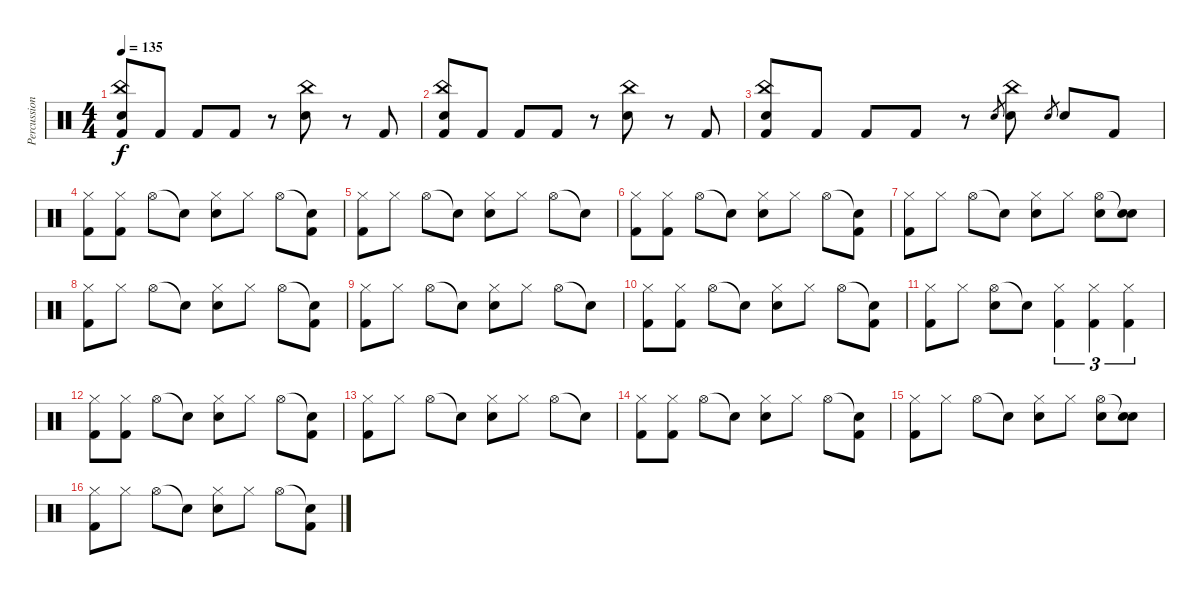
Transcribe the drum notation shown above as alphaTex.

\track ("Percussion" "Percussion") {instrument percussion}
\staff {score}
\articulation defaults
\ts (4 4)
\tempo 135
\clef neutral
\ks c
("Electric Snare (hit)" "China (hit)" "Kick (hit) 2").8{dy f} "Kick (hit) 2".8 "Kick (hit) 2".8 "Kick (hit) 2".8 r.8 ("China (hit)" "Electric Snare (hit)").8 r.8 "Kick (hit) 2".8 |
("Electric Snare (hit)" "China (hit)" "Kick (hit) 2").8 "Kick (hit) 2".8 "Kick (hit) 2".8 "Kick (hit) 2".8 r.8 ("China (hit)" "Electric Snare (hit)").8 r.8 "Kick (hit) 2".8 |
("Electric Snare (hit)" "China (hit)" "Kick (hit) 2").8 "Kick (hit) 2".8 "Kick (hit) 2".8 "Kick (hit) 2".8 r.8 "Electric Snare (hit)".8{gr} ("China (hit)" "Electric Snare (hit)").8 "Electric Snare (hit)".8{gr} "Electric Snare (hit)".8 "Kick (hit) 2".8 |
("Hi-Hat (closed)" "Kick (hit) 2").8 ("Hi-Hat (closed)" "Kick (hit) 2").8 "Hi-Hat (open)".8 "Snare (hit)"{t}.8 ("Hi-Hat (closed)" "Electric Snare (hit)").8 "Hi-Hat (closed)".8 "Hi-Hat (open)".8 ("Snare (hit)"{t} "Kick (hit) 2").8 |
("Hi-Hat (closed)" "Kick (hit) 2").8 "Hi-Hat (closed)".8 "Hi-Hat (open)".8 "Snare (hit)"{t}.8 ("Hi-Hat (closed)" "Electric Snare (hit)").8 "Hi-Hat (closed)".8 "Hi-Hat (open)".8 "Snare (hit)"{t}.8 |
("Hi-Hat (closed)" "Kick (hit) 2").8 ("Hi-Hat (closed)" "Kick (hit) 2").8 "Hi-Hat (open)".8 "Snare (hit)"{t}.8 ("Hi-Hat (closed)" "Electric Snare (hit)").8 "Hi-Hat (closed)".8 "Hi-Hat (open)".8 ("Snare (hit)"{t} "Kick (hit) 2").8 |
("Hi-Hat (closed)" "Kick (hit) 2").8 "Hi-Hat (closed)".8 "Hi-Hat (open)".8 "Snare (hit)"{t}.8 ("Hi-Hat (closed)" "Electric Snare (hit)").8 "Hi-Hat (closed)".8 ("Hi-Hat (open)" "Electric Snare (hit)").8 ("Snare (hit)"{t} "Electric Snare (hit)").8 |
("Hi-Hat (closed)" "Kick (hit) 2").8 "Hi-Hat (closed)".8 "Hi-Hat (open)".8 "Snare (hit)"{t}.8 ("Hi-Hat (closed)" "Electric Snare (hit)").8 "Hi-Hat (closed)".8 "Hi-Hat (open)".8 ("Snare (hit)"{t} "Kick (hit) 2").8 |
("Hi-Hat (closed)" "Kick (hit) 2").8 "Hi-Hat (closed)".8 "Hi-Hat (open)".8 "Snare (hit)"{t}.8 ("Hi-Hat (closed)" "Electric Snare (hit)").8 "Hi-Hat (closed)".8 "Hi-Hat (open)".8 "Snare (hit)"{t}.8 |
("Hi-Hat (closed)" "Kick (hit) 2").8 ("Hi-Hat (closed)" "Kick (hit) 2").8 "Hi-Hat (open)".8 "Snare (hit)"{t}.8 ("Hi-Hat (closed)" "Electric Snare (hit)").8 "Hi-Hat (closed)".8 "Hi-Hat (open)".8 ("Snare (hit)"{t} "Kick (hit) 2").8 |
("Hi-Hat (closed)" "Kick (hit) 2").8 "Hi-Hat (closed)".8 ("Hi-Hat (open)" "Electric Snare (hit)").8 "Snare (hit)"{t}.8 ("Hi-Hat (closed)" "Kick (hit) 2").4{tu (3 2)} ("Hi-Hat (closed)" "Kick (hit) 2").4{tu (3 2)} ("Hi-Hat (closed)" "Kick (hit) 2").4{tu (3 2)} |
("Hi-Hat (closed)" "Kick (hit) 2").8 ("Hi-Hat (closed)" "Kick (hit) 2").8 "Hi-Hat (open)".8 "Snare (hit)"{t}.8 ("Hi-Hat (closed)" "Electric Snare (hit)").8 "Hi-Hat (closed)".8 "Hi-Hat (open)".8 ("Snare (hit)"{t} "Kick (hit) 2").8 |
("Hi-Hat (closed)" "Kick (hit) 2").8 "Hi-Hat (closed)".8 "Hi-Hat (open)".8 "Snare (hit)"{t}.8 ("Hi-Hat (closed)" "Electric Snare (hit)").8 "Hi-Hat (closed)".8 "Hi-Hat (open)".8 "Snare (hit)"{t}.8 |
("Hi-Hat (closed)" "Kick (hit) 2").8 ("Hi-Hat (closed)" "Kick (hit) 2").8 "Hi-Hat (open)".8 "Snare (hit)"{t}.8 ("Hi-Hat (closed)" "Electric Snare (hit)").8 "Hi-Hat (closed)".8 "Hi-Hat (open)".8 ("Snare (hit)"{t} "Kick (hit) 2").8 |
("Hi-Hat (closed)" "Kick (hit) 2").8 "Hi-Hat (closed)".8 "Hi-Hat (open)".8 "Snare (hit)"{t}.8 ("Hi-Hat (closed)" "Electric Snare (hit)").8 "Hi-Hat (closed)".8 ("Hi-Hat (open)" "Electric Snare (hit)").8 ("Snare (hit)"{t} "Electric Snare (hit)").8 |
("Hi-Hat (closed)" "Kick (hit) 2").8 "Hi-Hat (closed)".8 "Hi-Hat (open)".8 "Snare (hit)"{t}.8 ("Hi-Hat (closed)" "Electric Snare (hit)").8 "Hi-Hat (closed)".8 "Hi-Hat (open)".8 ("Snare (hit)"{t} "Kick (hit) 2").8
